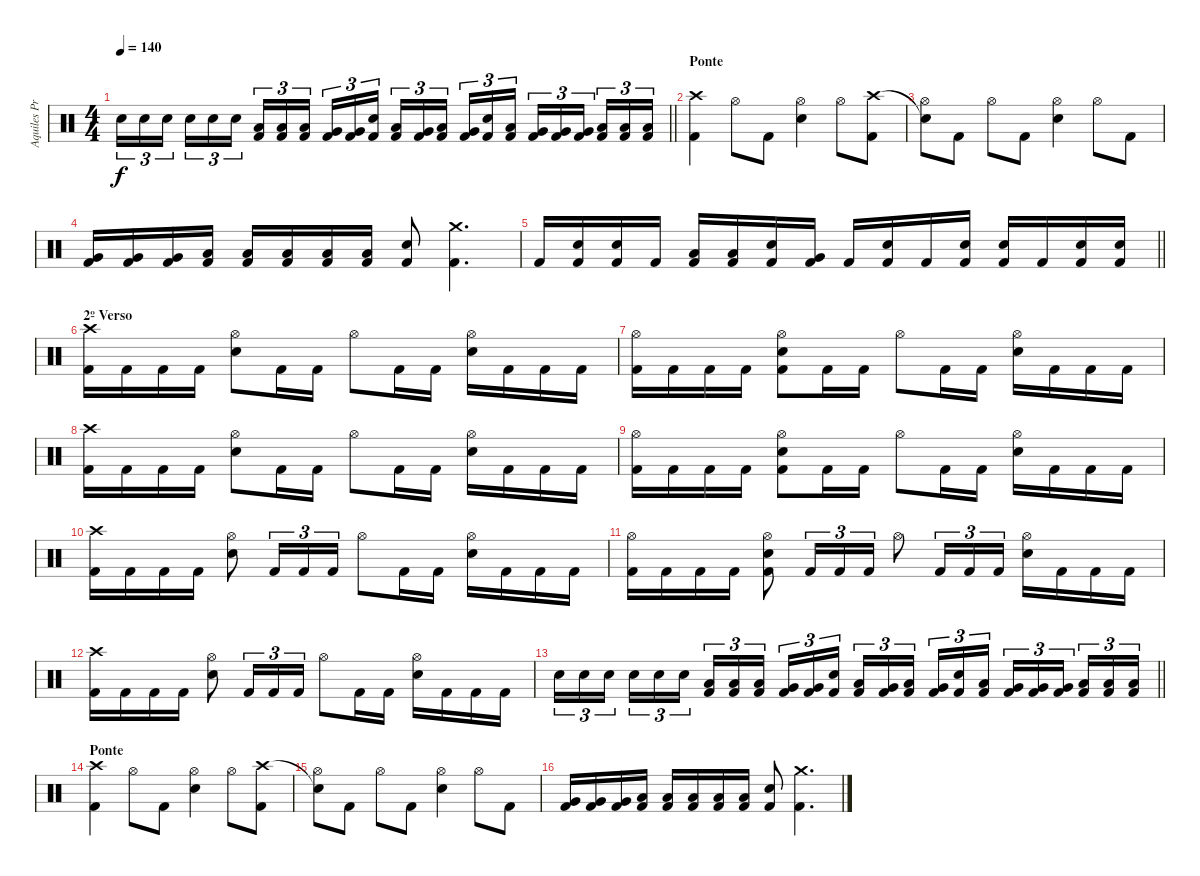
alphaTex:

\track ("Aquiles Priester" "Aquiles Pr") {instrument percussion}
\staff {score}
\articulation defaults
\ts (4 4)
\tempo 140
\clef neutral
\barLineRight lightlight
\ks c "Electric Snare (hit)".16{tu (3 2) dy f} "Electric Snare (hit)".16{tu (3 2)} "Electric Snare (hit)".16{tu (3 2)} "Electric Snare (hit)".16{tu (3 2)} "Electric Snare (hit)".16{tu (3 2)} "Electric Snare (hit)".16{tu (3 2)}
("Low Floor Tom (hit)" "Kick (hit) 2").16{tu (3 2)} ("Low Floor Tom (hit)" "Kick (hit) 2").16{tu (3 2)} ("Low Floor Tom (hit)" "Kick (hit) 2").16{tu (3 2)} ("Very Low Tom (hit)" "Kick (hit) 2").16{tu (3 2)} ("Very Low Tom (hit)" "Kick (hit) 2").16{tu (3 2)} ("Electric Snare (hit)" "Kick (hit) 2").16{tu (3 2)} ("Low Tom (hit)" "Kick (hit) 2").16{tu (3 2)} ("Very Low Tom (hit)" "Kick (hit) 2").16{tu (3 2)} ("Low Floor Tom (hit)" "Kick (hit) 2").16{tu (3 2)} ("Very Low Tom (hit)" "Kick (hit) 2").16{tu (3 2)} ("Electric Snare (hit)" "Kick (hit) 2").16{tu (3 2)} ("Low Tom (hit)" "Kick (hit) 2").16{tu (3 2)} ("Very Low Tom (hit)" "Kick (hit) 2").16{tu (3 2)} ("Very Low Tom (hit)" "Kick (hit) 2").16{tu (3 2)} ("Very Low Tom (hit)" "Kick (hit) 2").16{tu (3 2)} ("Low Floor Tom (hit)" "Kick (hit) 2").16{tu (3 2)} ("Low Floor Tom (hit)" "Kick (hit) 2").16{tu (3 2)} ("Low Floor Tom (hit)" "Kick (hit) 2").16{tu (3 2)} |
\section ("" "Ponte")
("Crash high (hit)" "Kick (hit) 2").4 "Hi-Hat (open)".8 "Kick (hit) 2".8 ("Hi-Hat (open)" "Electric Snare (hit)").4 "Hi-Hat (open)".8 ("Crash high (hit)" "Kick (hit) 2").8 |
("Snare (hit)"{t} "Hi-Hat (open)").8 "Kick (hit) 2".8 "Hi-Hat (open)".8 "Kick (hit) 2".8 ("Hi-Hat (open)" "Electric Snare (hit)").4 "Hi-Hat (open)".8 "Kick (hit) 2".8 |
("Very Low Tom (hit)" "Kick (hit) 2").16 ("Very Low Tom (hit)" "Kick (hit) 2").16 ("Very Low Tom (hit)" "Kick (hit) 2").16 ("Low Floor Tom (hit)" "Kick (hit) 2").16 ("Low Floor Tom (hit)" "Kick (hit) 2").16 ("Low Floor Tom (hit)" "Kick (hit) 2").16 ("Low Floor Tom (hit)" "Kick (hit) 2").16 ("Low Floor Tom (hit)" "Kick (hit) 2").16 ("Electric Snare (hit)" "Kick (hit) 2").8 ("Crash medium (hit)" "Kick (hit) 2").4{d} |
\barLineRight lightlight "Kick (hit) 2".16
("Electric Snare (hit)" "Kick (hit) 2").16 ("Electric Snare (hit)" "Kick (hit) 2").16 "Kick (hit) 2".16 ("Low Tom (hit)" "Kick (hit) 2").16 ("Low Tom (hit)" "Kick (hit) 2").16 ("Electric Snare (hit)" "Kick (hit) 2").16 ("Very Low Tom (hit)" "Kick (hit) 2").16 "Kick (hit) 2".16 ("Electric Snare (hit)" "Kick (hit) 2").16 "Kick (hit) 2".16 ("Electric Snare (hit)" "Kick (hit) 2").16 ("Electric Snare (hit)" "Kick (hit) 2").16 "Kick (hit) 2".16 ("Electric Snare (hit)" "Kick (hit) 2").16 ("Electric Snare (hit)" "Kick (hit) 2").16 |
\section ("" "2º Verso")
("Crash high (hit)" "Kick (hit) 2").16 "Kick (hit) 2".16 "Kick (hit) 2".16 "Kick (hit) 2".16 ("Hi-Hat (open)" "Electric Snare (hit)").8 "Kick (hit) 2".16 "Kick (hit) 2".16 "Hi-Hat (open)".8 "Kick (hit) 2".16 "Kick (hit) 2".16 ("Hi-Hat (open)" "Electric Snare (hit)").16 "Kick (hit) 2".16 "Kick (hit) 2".16 "Kick (hit) 2".16 |
("Hi-Hat (open)" "Kick (hit) 2").16 "Kick (hit) 2".16 "Kick (hit) 2".16 "Kick (hit) 2".16 ("Hi-Hat (open)" "Electric Snare (hit)" "Kick (hit) 2").8 "Kick (hit) 2".16 "Kick (hit) 2".16 "Hi-Hat (open)".8 "Kick (hit) 2".16 "Kick (hit) 2".16 ("Hi-Hat (open)" "Electric Snare (hit)").16 "Kick (hit) 2".16 "Kick (hit) 2".16 "Kick (hit) 2".16 |
("Crash high (hit)" "Kick (hit) 2").16 "Kick (hit) 2".16 "Kick (hit) 2".16 "Kick (hit) 2".16 ("Hi-Hat (open)" "Electric Snare (hit)").8 "Kick (hit) 2".16 "Kick (hit) 2".16 "Hi-Hat (open)".8 "Kick (hit) 2".16 "Kick (hit) 2".16 ("Hi-Hat (open)" "Electric Snare (hit)").16 "Kick (hit) 2".16 "Kick (hit) 2".16 "Kick (hit) 2".16 |
("Hi-Hat (open)" "Kick (hit) 2").16 "Kick (hit) 2".16 "Kick (hit) 2".16 "Kick (hit) 2".16 ("Hi-Hat (open)" "Electric Snare (hit)" "Kick (hit) 2").8 "Kick (hit) 2".16 "Kick (hit) 2".16 "Hi-Hat (open)".8 "Kick (hit) 2".16 "Kick (hit) 2".16 ("Hi-Hat (open)" "Electric Snare (hit)").16 "Kick (hit) 2".16 "Kick (hit) 2".16 "Kick (hit) 2".16 |
("Crash high (hit)" "Kick (hit) 2").16 "Kick (hit) 2".16 "Kick (hit) 2".16 "Kick (hit) 2".16 ("Hi-Hat (open)" "Electric Snare (hit)").8 "Kick (hit) 2".16{tu (3 2)} "Kick (hit) 2".16{tu (3 2)} "Kick (hit) 2".16{tu (3 2)} "Hi-Hat (open)".8 "Kick (hit) 2".16 "Kick (hit) 2".16 ("Hi-Hat (open)" "Electric Snare (hit)").16 "Kick (hit) 2".16 "Kick (hit) 2".16 "Kick (hit) 2".16 |
("Hi-Hat (open)" "Kick (hit) 2").16 "Kick (hit) 2".16 "Kick (hit) 2".16 "Kick (hit) 2".16 ("Hi-Hat (open)" "Electric Snare (hit)" "Kick (hit) 2").8 "Kick (hit) 2".16{tu (3 2)} "Kick (hit) 2".16{tu (3 2)} "Kick (hit) 2".16{tu (3 2)} "Hi-Hat (open)".8 "Kick (hit) 2".16{tu (3 2)} "Kick (hit) 2".16{tu (3 2)} "Kick (hit) 2".16{tu (3 2)} ("Hi-Hat (open)" "Electric Snare (hit)").16 "Kick (hit) 2".16 "Kick (hit) 2".16 "Kick (hit) 2".16 |
("Crash high (hit)" "Kick (hit) 2").16 "Kick (hit) 2".16 "Kick (hit) 2".16 "Kick (hit) 2".16 ("Hi-Hat (open)" "Electric Snare (hit)").8 "Kick (hit) 2".16{tu (3 2)} "Kick (hit) 2".16{tu (3 2)} "Kick (hit) 2".16{tu (3 2)} "Hi-Hat (open)".8 "Kick (hit) 2".16 "Kick (hit) 2".16 ("Hi-Hat (open)" "Electric Snare (hit)").16 "Kick (hit) 2".16 "Kick (hit) 2".16 "Kick (hit) 2".16 |
\barLineRight lightlight "Electric Snare (hit)".16{tu (3 2)} "Electric Snare (hit)".16{tu (3 2)} "Electric Snare (hit)".16{tu (3 2)} "Electric Snare (hit)".16{tu (3 2)} "Electric Snare (hit)".16{tu (3 2)} "Electric Snare (hit)".16{tu (3 2)}
("Low Floor Tom (hit)" "Kick (hit) 2").16{tu (3 2)} ("Low Floor Tom (hit)" "Kick (hit) 2").16{tu (3 2)} ("Low Floor Tom (hit)" "Kick (hit) 2").16{tu (3 2)} ("Very Low Tom (hit)" "Kick (hit) 2").16{tu (3 2)} ("Very Low Tom (hit)" "Kick (hit) 2").16{tu (3 2)} ("Electric Snare (hit)" "Kick (hit) 2").16{tu (3 2)} ("Low Tom (hit)" "Kick (hit) 2").16{tu (3 2)} ("Very Low Tom (hit)" "Kick (hit) 2").16{tu (3 2)} ("Low Floor Tom (hit)" "Kick (hit) 2").16{tu (3 2)} ("Very Low Tom (hit)" "Kick (hit) 2").16{tu (3 2)} ("Electric Snare (hit)" "Kick (hit) 2").16{tu (3 2)} ("Low Tom (hit)" "Kick (hit) 2").16{tu (3 2)} ("Very Low Tom (hit)" "Kick (hit) 2").16{tu (3 2)} ("Very Low Tom (hit)" "Kick (hit) 2").16{tu (3 2)} ("Very Low Tom (hit)" "Kick (hit) 2").16{tu (3 2)} ("Low Floor Tom (hit)" "Kick (hit) 2").16{tu (3 2)} ("Low Floor Tom (hit)" "Kick (hit) 2").16{tu (3 2)} ("Low Floor Tom (hit)" "Kick (hit) 2").16{tu (3 2)} |
\section ("" "Ponte")
("Crash high (hit)" "Kick (hit) 2").4 "Hi-Hat (open)".8 "Kick (hit) 2".8 ("Hi-Hat (open)" "Electric Snare (hit)").4 "Hi-Hat (open)".8 ("Crash high (hit)" "Kick (hit) 2").8 |
("Snare (hit)"{t} "Hi-Hat (open)").8 "Kick (hit) 2".8 "Hi-Hat (open)".8 "Kick (hit) 2".8 ("Hi-Hat (open)" "Electric Snare (hit)").4 "Hi-Hat (open)".8 "Kick (hit) 2".8 |
("Very Low Tom (hit)" "Kick (hit) 2").16 ("Very Low Tom (hit)" "Kick (hit) 2").16 ("Very Low Tom (hit)" "Kick (hit) 2").16 ("Low Floor Tom (hit)" "Kick (hit) 2").16 ("Low Floor Tom (hit)" "Kick (hit) 2").16 ("Low Floor Tom (hit)" "Kick (hit) 2").16 ("Low Floor Tom (hit)" "Kick (hit) 2").16 ("Low Floor Tom (hit)" "Kick (hit) 2").16 ("Electric Snare (hit)" "Kick (hit) 2").8 ("Crash medium (hit)" "Kick (hit) 2").4{d}
